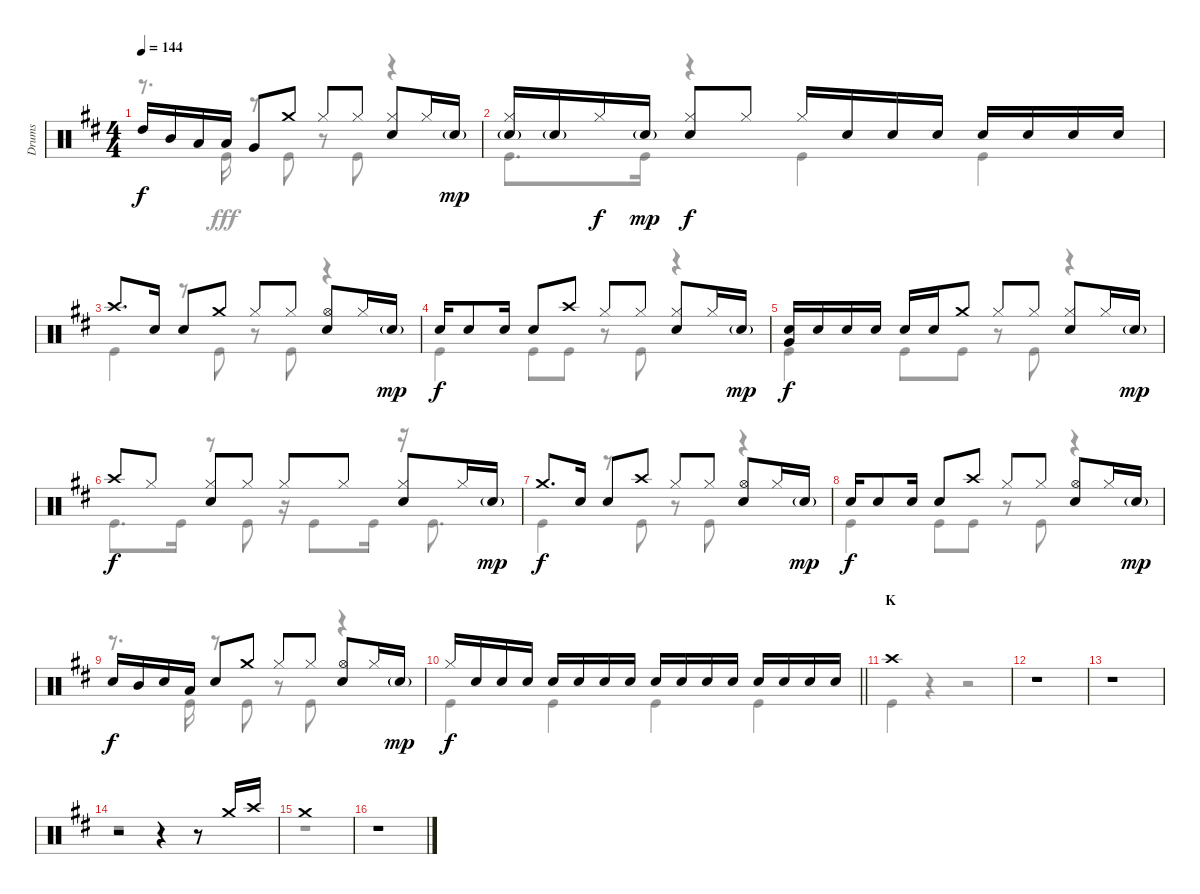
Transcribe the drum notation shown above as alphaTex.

\track ("Drums" "Drums") {instrument percussion}
\staff {score}
\articulation defaults
\voice
\ts (4 4)
\tempo 144
\clef neutral
\ks d "High Tom (hit)".16{dy f} "Mid Tom (hit)".16 "Low Tom (hit)".16 "Low Tom (hit)".16 "Very Low Tom (hit)".8 "Crash medium (hit)".8 "Hi-Hat (closed)".8 "Hi-Hat (closed)".8
("Hi-Hat (closed)" "Snare (hit) 2").8 "Hi-Hat (closed)".16 "Snare (hit) 2"{g}.16{dy mp} |
("Hi-Hat (closed)" "Snare (hit) 2"{g}).16 "Snare (hit) 2"{g}.16 "Hi-Hat (closed)".16{dy f} "Snare (hit) 2"{g}.16{dy mp} ("Hi-Hat (closed)" "Snare (hit) 2").8{dy f} "Hi-Hat (closed)".8 "Hi-Hat (closed)".16 "Snare (hit) 2".16 "Snare (hit) 2".16 "Snare (hit) 2".16 "Snare (hit) 2".16 "Snare (hit) 2".16 "Snare (hit) 2".16 "Snare (hit) 2".16 |
"Crash high (hit)".8{d} "Snare (hit) 2".16 "Snare (hit) 2".8 "Crash medium (hit)".8 "Hi-Hat (closed)".8 "Hi-Hat (closed)".8 ("Hi-Hat (open)" "Snare (hit) 2").8 "Hi-Hat (closed)".16 "Snare (hit) 2"{g}.16{dy mp} |
"Snare (hit) 2".16{dy f} "Snare (hit) 2".8 "Snare (hit) 2".16 "Snare (hit) 2".8 "Crash high (hit)".8 "Hi-Hat (closed)".8 "Hi-Hat (closed)".8 ("Hi-Hat (closed)" "Snare (hit) 2").8 "Hi-Hat (closed)".16 "Snare (hit) 2"{g}.16{dy mp} |
("Snare (hit) 2" "Very Low Tom (hit)").16{dy f} "Snare (hit) 2".16 "Snare (hit) 2".16 "Snare (hit) 2".16 "Snare (hit) 2".16 "Snare (hit) 2".16 "Crash medium (hit)".8 "Hi-Hat (closed)".8 "Hi-Hat (closed)".8 ("Hi-Hat (closed)" "Snare (hit) 2").8 "Hi-Hat (closed)".16 "Snare (hit) 2"{g}.16{dy mp} |
"Crash high (hit)".8{dy f} "Hi-Hat (closed)".8 ("Hi-Hat (closed)" "Snare (hit) 2").8 "Hi-Hat (closed)".8 "Hi-Hat (closed)".8 "Hi-Hat (closed)".8 ("Hi-Hat (closed)" "Snare (hit) 2").8 "Hi-Hat (closed)".16 "Snare (hit) 2"{g}.16{dy mp} |
"Crash medium (hit)".8{d dy f} "Snare (hit) 2".16 "Snare (hit) 2".8 "Crash high (hit)".8 "Hi-Hat (closed)".8 "Hi-Hat (closed)".8 ("Hi-Hat (open)" "Snare (hit) 2").8 "Hi-Hat (closed)".16 "Snare (hit) 2"{g}.16{dy mp} |
"Snare (hit) 2".16{dy f} "Snare (hit) 2".8 "Snare (hit) 2".16 "Snare (hit) 2".8 "Crash high (hit)".8 "Hi-Hat (closed)".8 "Hi-Hat (closed)".8 ("Hi-Hat (open)" "Snare (hit) 2").8 "Hi-Hat (closed)".16 "Snare (hit) 2"{g}.16{dy mp} |
"Snare (hit) 2".16{dy f} "Mid Tom (hit)".16 "Snare (hit) 2".16 "Low Tom (hit)".16 "Snare (hit) 2".8 "Crash medium (hit)".8 "Hi-Hat (closed)".8 "Hi-Hat (closed)".8 ("Hi-Hat (open)" "Snare (hit) 2").8 "Hi-Hat (closed)".16 "Snare (hit) 2"{g}.16{dy mp} |
\barLineRight lightlight "Hi-Hat (closed)".16{dy f} "Snare (hit) 2".16 "Snare (hit) 2".16 "Snare (hit) 2".16 "Snare (hit) 2".16 "Snare (hit) 2".16 "Snare (hit) 2".16 "Snare (hit) 2".16 "Snare (hit) 2".16 "Snare (hit) 2".16 "Snare (hit) 2".16 "Snare (hit) 2".16 "Snare (hit) 2".16 "Snare (hit) 2".16 "Snare (hit) 2".16 "Snare (hit) 2".16
|
\section ("" "K")
"Crash high (hit)".1 |
r.1 |
r.1 |
r.2 r.4 r.8 "Crash medium (hit)".16 "Crash high (hit)".16 |
"Crash medium (hit)".1 |
r.1
\voice
\clef neutral
\ottava regular
\simile none
\ks d
r.8{d dy fff} "Kick (hit)".16 r.8 "Kick (hit)".8 r.8 "Kick (hit)".8 r.4 |
"Kick (hit)".8{d} "Kick (hit)".16 r.4 "Kick (hit)".4 "Kick (hit)".4 |
"Kick (hit)".4 r.8 "Kick (hit)".8 r.8 "Kick (hit)".8 r.4 |
"Kick (hit)".4 "Kick (hit)".8 "Kick (hit)".8 r.8 "Kick (hit)".8 r.4 |
"Kick (hit)".4 "Kick (hit)".8 "Kick (hit)".8 r.8 "Kick (hit)".8 r.4 |
"Kick (hit)".8{d} "Kick (hit)".16 r.8 "Kick (hit)".8 r.16 "Kick (hit)".8 "Kick (hit)".16 r.16 "Kick (hit)".8{d} |
"Kick (hit)".4 r.8 "Kick (hit)".8 r.8 "Kick (hit)".8 r.4 |
"Kick (hit)".4 "Kick (hit)".8 "Kick (hit)".8 r.8 "Kick (hit)".8 r.4 |
r.8{d} "Kick (hit)".16 r.8 "Kick (hit)".8 r.8 "Kick (hit)".8 r.4 |
\barLineRight lightlight "Kick (hit)".4 "Kick (hit)".4 "Kick (hit)".4 "Kick (hit)".4
|
"Kick (hit)".4 r.4 r.2 |
r.1 |
r.1 |
r.1 |
r.1 |
r.1
